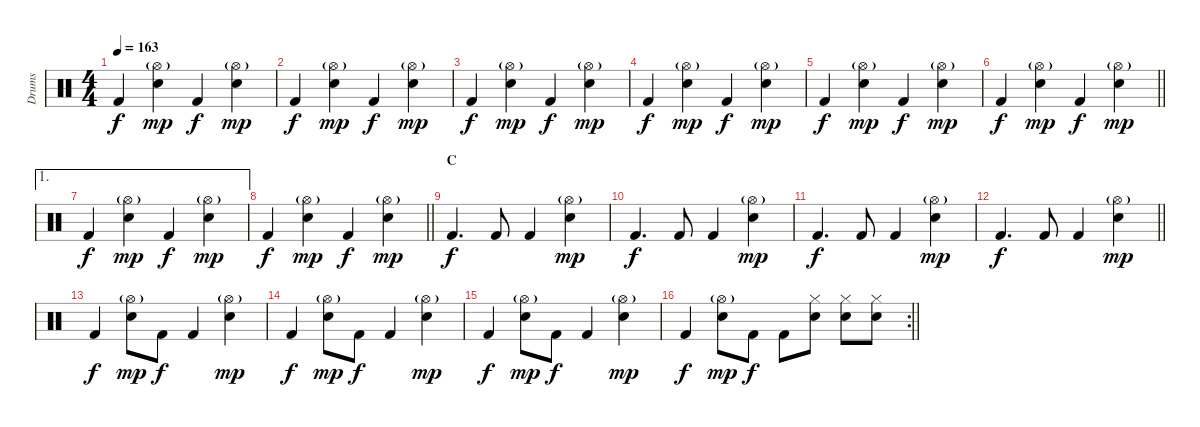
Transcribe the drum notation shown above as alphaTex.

\track ("Drums" "Drums") {instrument percussion}
\staff {score}
\articulation defaults
\ts (4 4)
\tempo 163
\clef neutral
\ks c "Kick (hit) 2".4{dy f}
("Hi-Hat (open)"{g} "Snare (hit) 2").4{dy mp} "Kick (hit) 2".4{dy f} ("Hi-Hat (open)"{g} "Snare (hit) 2").4{dy mp} |
"Kick (hit) 2".4{dy f} ("Hi-Hat (open)"{g} "Snare (hit) 2").4{dy mp} "Kick (hit) 2".4{dy f} ("Hi-Hat (open)"{g} "Snare (hit) 2").4{dy mp} |
"Kick (hit) 2".4{dy f} ("Hi-Hat (open)"{g} "Snare (hit) 2").4{dy mp} "Kick (hit) 2".4{dy f} ("Hi-Hat (open)"{g} "Snare (hit) 2").4{dy mp} |
"Kick (hit) 2".4{dy f} ("Hi-Hat (open)"{g} "Snare (hit) 2").4{dy mp} "Kick (hit) 2".4{dy f} ("Hi-Hat (open)"{g} "Snare (hit) 2").4{dy mp} |
"Kick (hit) 2".4{dy f} ("Hi-Hat (open)"{g} "Snare (hit) 2").4{dy mp} "Kick (hit) 2".4{dy f} ("Hi-Hat (open)"{g} "Snare (hit) 2").4{dy mp} |
\barLineRight lightlight "Kick (hit) 2".4{dy f}
("Hi-Hat (open)"{g} "Snare (hit) 2").4{dy mp} "Kick (hit) 2".4{dy f} ("Hi-Hat (open)"{g} "Snare (hit) 2").4{dy mp} |
\ae 1 "Kick (hit) 2".4{dy f}
("Hi-Hat (open)"{g} "Snare (hit) 2").4{dy mp} "Kick (hit) 2".4{dy f} ("Hi-Hat (open)"{g} "Snare (hit) 2").4{dy mp} |
\barLineRight lightlight "Kick (hit) 2".4{dy f}
("Hi-Hat (open)"{g} "Snare (hit) 2").4{dy mp} "Kick (hit) 2".4{dy f} ("Hi-Hat (open)"{g} "Snare (hit) 2").4{dy mp} |
\section ("" "C")
"Kick (hit) 2".4{d dy f} "Kick (hit) 2".8 "Kick (hit) 2".4 ("Hi-Hat (open)"{g} "Snare (hit) 2").4{dy mp} |
"Kick (hit) 2".4{d dy f} "Kick (hit) 2".8 "Kick (hit) 2".4 ("Hi-Hat (open)"{g} "Snare (hit) 2").4{dy mp} |
"Kick (hit) 2".4{d dy f} "Kick (hit) 2".8 "Kick (hit) 2".4 ("Hi-Hat (open)"{g} "Snare (hit) 2").4{dy mp} |
\barLineRight lightlight "Kick (hit) 2".4{d dy f} "Kick (hit) 2".8 "Kick (hit) 2".4
("Hi-Hat (open)"{g} "Snare (hit) 2").4{dy mp} |
"Kick (hit) 2".4{dy f} ("Hi-Hat (open)"{g} "Snare (hit) 2").8{dy mp} "Kick (hit) 2".8{dy f} "Kick (hit) 2".4 ("Hi-Hat (open)"{g} "Snare (hit) 2").4{dy mp} |
"Kick (hit) 2".4{dy f} ("Hi-Hat (open)"{g} "Snare (hit) 2").8{dy mp} "Kick (hit) 2".8{dy f} "Kick (hit) 2".4 ("Hi-Hat (open)"{g} "Snare (hit) 2").4{dy mp} |
"Kick (hit) 2".4{dy f} ("Hi-Hat (open)"{g} "Snare (hit) 2").8{dy mp} "Kick (hit) 2".8{dy f} "Kick (hit) 2".4 ("Hi-Hat (open)"{g} "Snare (hit) 2").4{dy mp} |
\rc 2
\barLineRight lightlight "Kick (hit) 2".4{dy f}
("Hi-Hat (open)"{g} "Snare (hit) 2").8{dy mp} "Kick (hit) 2".8{dy f} "Kick (hit) 2".8 ("Hi-Hat (closed)" "Snare (hit) 2").8 ("Hi-Hat (closed)" "Snare (hit) 2").8 ("Hi-Hat (closed)" "Snare (hit) 2").8
